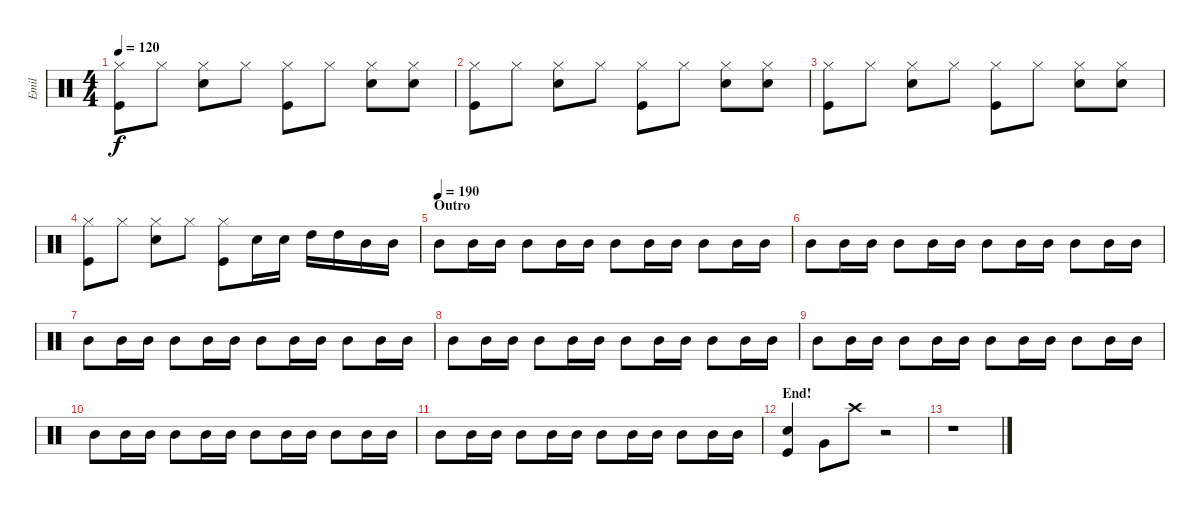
\track ("Emil" "Emil") {instrument percussion}
\staff {score}
\articulation defaults
\ts (4 4)
\tempo 120
\clef neutral
\ks c
("Hi-Hat (closed)" "Kick (hit)").8{dy f} "Hi-Hat (closed)".8 ("Hi-Hat (closed)" "Electric Snare (hit)").8 "Hi-Hat (closed)".8 ("Hi-Hat (closed)" "Kick (hit)").8 "Hi-Hat (closed)".8 ("Hi-Hat (closed)" "Electric Snare (hit)").8 ("Hi-Hat (closed)" "Electric Snare (hit)").8 |
("Hi-Hat (closed)" "Kick (hit)").8 "Hi-Hat (closed)".8 ("Hi-Hat (closed)" "Electric Snare (hit)").8 "Hi-Hat (closed)".8 ("Hi-Hat (closed)" "Kick (hit)").8 "Hi-Hat (closed)".8 ("Hi-Hat (closed)" "Electric Snare (hit)").8 ("Hi-Hat (closed)" "Electric Snare (hit)").8 |
("Hi-Hat (closed)" "Kick (hit)").8 "Hi-Hat (closed)".8 ("Hi-Hat (closed)" "Electric Snare (hit)").8 "Hi-Hat (closed)".8 ("Hi-Hat (closed)" "Kick (hit)").8 "Hi-Hat (closed)".8 ("Hi-Hat (closed)" "Electric Snare (hit)").8 ("Hi-Hat (closed)" "Electric Snare (hit)").8 |
("Hi-Hat (closed)" "Kick (hit)").8 "Hi-Hat (closed)".8 ("Hi-Hat (closed)" "Electric Snare (hit)").8 "Hi-Hat (closed)".8 ("Hi-Hat (closed)" "Kick (hit)").8 "Electric Snare (hit)".16 "Electric Snare (hit)".16 "High Tom (hit)".16 "High Tom (hit)".16 "Mid Tom (hit)".16 "Mid Tom (hit)".16 |
\section ("" "Outro")
\tempo (190)
"Mid Tom (hit)".8 "Mid Tom (hit)".16 "Mid Tom (hit)".16 "Mid Tom (hit)".8 "Mid Tom (hit)".16 "Mid Tom (hit)".16 "Mid Tom (hit)".8 "Mid Tom (hit)".16 "Mid Tom (hit)".16 "Mid Tom (hit)".8 "Mid Tom (hit)".16 "Mid Tom (hit)".16 |
"Mid Tom (hit)".8 "Mid Tom (hit)".16 "Mid Tom (hit)".16 "Mid Tom (hit)".8 "Mid Tom (hit)".16 "Mid Tom (hit)".16 "Mid Tom (hit)".8 "Mid Tom (hit)".16 "Mid Tom (hit)".16 "Mid Tom (hit)".8 "Mid Tom (hit)".16 "Mid Tom (hit)".16 |
"Mid Tom (hit)".8 "Mid Tom (hit)".16 "Mid Tom (hit)".16 "Mid Tom (hit)".8 "Mid Tom (hit)".16 "Mid Tom (hit)".16 "Mid Tom (hit)".8 "Mid Tom (hit)".16 "Mid Tom (hit)".16 "Mid Tom (hit)".8 "Mid Tom (hit)".16 "Mid Tom (hit)".16 |
"Mid Tom (hit)".8 "Mid Tom (hit)".16 "Mid Tom (hit)".16 "Mid Tom (hit)".8 "Mid Tom (hit)".16 "Mid Tom (hit)".16 "Mid Tom (hit)".8 "Mid Tom (hit)".16 "Mid Tom (hit)".16 "Mid Tom (hit)".8 "Mid Tom (hit)".16 "Mid Tom (hit)".16 |
"Mid Tom (hit)".8 "Mid Tom (hit)".16 "Mid Tom (hit)".16 "Mid Tom (hit)".8 "Mid Tom (hit)".16 "Mid Tom (hit)".16 "Mid Tom (hit)".8 "Mid Tom (hit)".16 "Mid Tom (hit)".16 "Mid Tom (hit)".8 "Mid Tom (hit)".16 "Mid Tom (hit)".16 |
"Mid Tom (hit)".8 "Mid Tom (hit)".16 "Mid Tom (hit)".16 "Mid Tom (hit)".8 "Mid Tom (hit)".16 "Mid Tom (hit)".16 "Mid Tom (hit)".8 "Mid Tom (hit)".16 "Mid Tom (hit)".16 "Mid Tom (hit)".8 "Mid Tom (hit)".16 "Mid Tom (hit)".16 |
"Mid Tom (hit)".8 "Mid Tom (hit)".16 "Mid Tom (hit)".16 "Mid Tom (hit)".8 "Mid Tom (hit)".16 "Mid Tom (hit)".16 "Mid Tom (hit)".8 "Mid Tom (hit)".16 "Mid Tom (hit)".16 "Mid Tom (hit)".8 "Mid Tom (hit)".16 "Mid Tom (hit)".16 |
\section ("" "End!")
("Electric Snare (hit)" "Kick (hit)").4 "Very Low Tom (hit)".8 "Crash high (hit)".8 r.2 |
r.1
